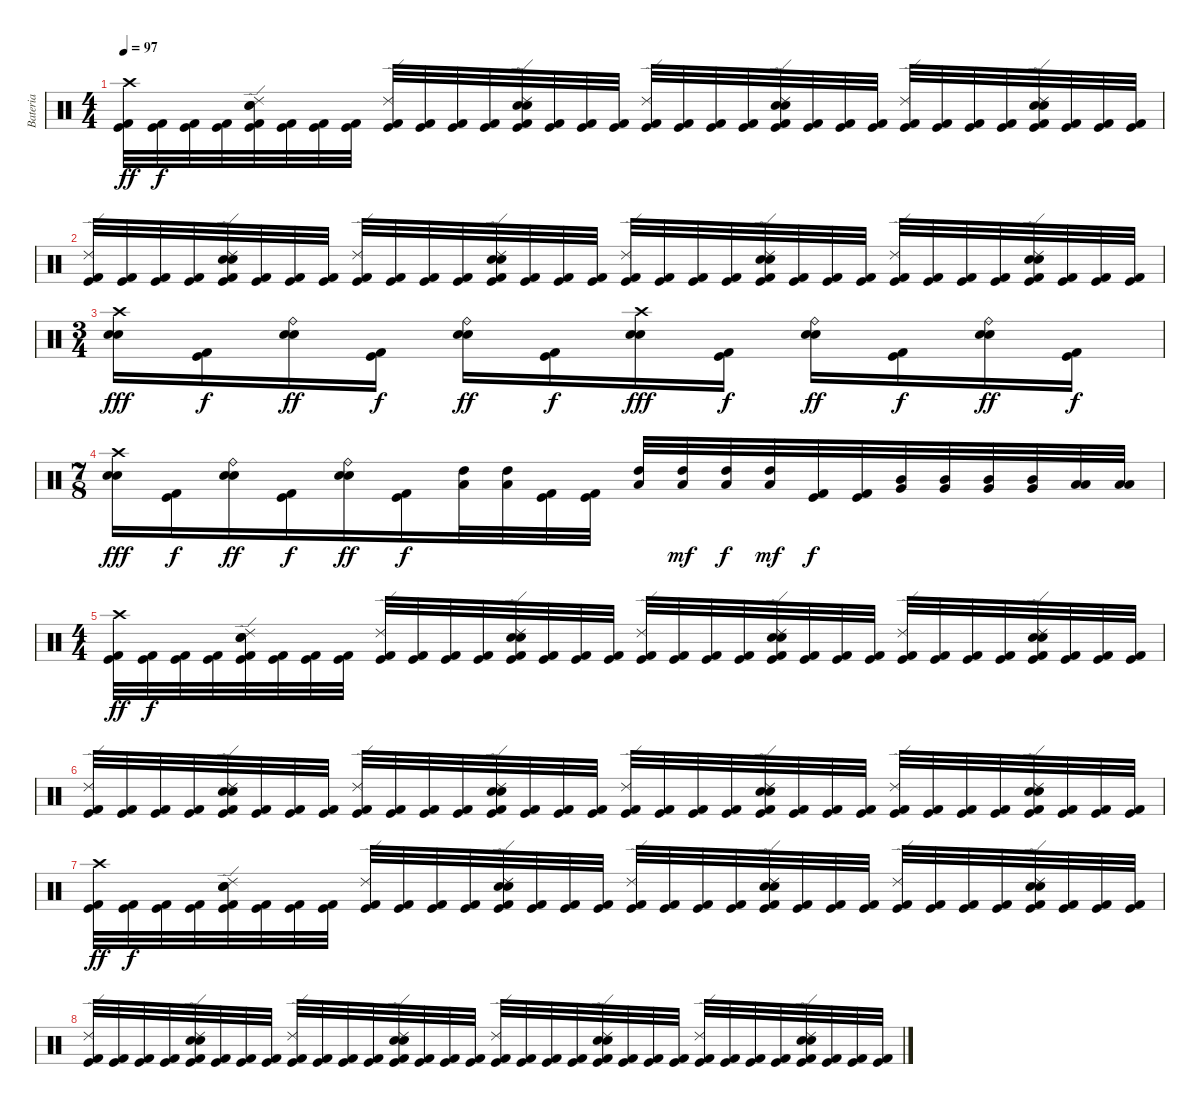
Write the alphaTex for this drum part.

\track ("Bateria" "Bateria") {instrument percussion}
\staff {score}
\articulation defaults
\ts (4 4)
\tempo 97
\clef neutral
\ks c
("Crash high (hit)" "Kick (hit) 2" "Kick (hit)").32{dy ff} ("Kick (hit) 2" "Kick (hit)").32{dy f} ("Kick (hit) 2" "Kick (hit)").32 ("Kick (hit) 2" "Kick (hit)").32 ("Ride (edge) 2" "Electric Snare (hit)" "Snare (hit) 2" "Kick (hit) 2" "Kick (hit)").32 ("Kick (hit) 2" "Kick (hit)").32 ("Kick (hit) 2" "Kick (hit)").32 ("Kick (hit) 2" "Kick (hit)").32 ("Ride (edge) 2" "Kick (hit) 2" "Kick (hit)").32 ("Kick (hit) 2" "Kick (hit)").32 ("Kick (hit) 2" "Kick (hit)").32 ("Kick (hit) 2" "Kick (hit)").32 ("Ride (edge) 2" "Electric Snare (hit)" "Snare (hit) 2" "Kick (hit) 2" "Kick (hit)").32 ("Kick (hit) 2" "Kick (hit)").32 ("Kick (hit) 2" "Kick (hit)").32 ("Kick (hit) 2" "Kick (hit)").32 ("Ride (edge) 2" "Kick (hit) 2" "Kick (hit)").32 ("Kick (hit) 2" "Kick (hit)").32 ("Kick (hit) 2" "Kick (hit)").32 ("Kick (hit) 2" "Kick (hit)").32 ("Ride (edge) 2" "Electric Snare (hit)" "Snare (hit) 2" "Kick (hit) 2" "Kick (hit)").32 ("Kick (hit) 2" "Kick (hit)").32 ("Kick (hit) 2" "Kick (hit)").32 ("Kick (hit) 2" "Kick (hit)").32 ("Ride (edge) 2" "Kick (hit) 2" "Kick (hit)").32 ("Kick (hit) 2" "Kick (hit)").32 ("Kick (hit) 2" "Kick (hit)").32 ("Kick (hit) 2" "Kick (hit)").32 ("Ride (edge) 2" "Electric Snare (hit)" "Snare (hit) 2" "Kick (hit) 2" "Kick (hit)").32 ("Kick (hit) 2" "Kick (hit)").32 ("Kick (hit) 2" "Kick (hit)").32 ("Kick (hit) 2" "Kick (hit)").32 |
("Ride (edge) 2" "Kick (hit) 2" "Kick (hit)").32 ("Kick (hit) 2" "Kick (hit)").32 ("Kick (hit) 2" "Kick (hit)").32 ("Kick (hit) 2" "Kick (hit)").32 ("Ride (edge) 2" "Electric Snare (hit)" "Snare (hit) 2" "Kick (hit) 2" "Kick (hit)").32 ("Kick (hit) 2" "Kick (hit)").32 ("Kick (hit) 2" "Kick (hit)").32 ("Kick (hit) 2" "Kick (hit)").32 ("Ride (edge) 2" "Kick (hit) 2" "Kick (hit)").32 ("Kick (hit) 2" "Kick (hit)").32 ("Kick (hit) 2" "Kick (hit)").32 ("Kick (hit) 2" "Kick (hit)").32 ("Ride (edge) 2" "Electric Snare (hit)" "Snare (hit) 2" "Kick (hit) 2" "Kick (hit)").32 ("Kick (hit) 2" "Kick (hit)").32 ("Kick (hit) 2" "Kick (hit)").32 ("Kick (hit) 2" "Kick (hit)").32 ("Ride (edge) 2" "Kick (hit) 2" "Kick (hit)").32 ("Kick (hit) 2" "Kick (hit)").32 ("Kick (hit) 2" "Kick (hit)").32 ("Kick (hit) 2" "Kick (hit)").32 ("Ride (edge) 2" "Electric Snare (hit)" "Snare (hit) 2" "Kick (hit) 2" "Kick (hit)").32 ("Kick (hit) 2" "Kick (hit)").32 ("Kick (hit) 2" "Kick (hit)").32 ("Kick (hit) 2" "Kick (hit)").32 ("Ride (edge) 2" "Kick (hit) 2" "Kick (hit)").32 ("Kick (hit) 2" "Kick (hit)").32 ("Kick (hit) 2" "Kick (hit)").32 ("Kick (hit) 2" "Kick (hit)").32 ("Ride (edge) 2" "Electric Snare (hit)" "Snare (hit) 2" "Kick (hit) 2" "Kick (hit)").32 ("Kick (hit) 2" "Kick (hit)").32 ("Kick (hit) 2" "Kick (hit)").32 ("Kick (hit) 2" "Kick (hit)").32 |
\ts (3 4)
("Crash high (hit)" "Electric Snare (hit)" "Snare (hit) 2").16{dy fff} ("Kick (hit) 2" "Kick (hit)").16{dy f} ("Ride (bell)" "Electric Snare (hit)" "Snare (hit) 2").16{dy ff} ("Kick (hit) 2" "Kick (hit)").16{dy f} ("Ride (bell)" "Electric Snare (hit)" "Snare (hit) 2").16{dy ff} ("Kick (hit) 2" "Kick (hit)").16{dy f} ("Crash high (hit)" "Electric Snare (hit)" "Snare (hit) 2").16{dy fff} ("Kick (hit) 2" "Kick (hit)").16{dy f} ("Ride (bell)" "Electric Snare (hit)" "Snare (hit) 2").16{dy ff} ("Kick (hit) 2" "Kick (hit)").16{dy f} ("Ride (bell)" "Electric Snare (hit)" "Snare (hit) 2").16{dy ff} ("Kick (hit) 2" "Kick (hit)").16{dy f} |
\ts (7 8)
("Crash high (hit)" "Electric Snare (hit)" "Snare (hit) 2").16{dy fff} ("Kick (hit) 2" "Kick (hit)").16{dy f} ("Ride (bell)" "Electric Snare (hit)" "Snare (hit) 2").16{dy ff} ("Kick (hit) 2" "Kick (hit)").16{dy f} ("Ride (bell)" "Electric Snare (hit)" "Snare (hit) 2").16{dy ff} ("Kick (hit) 2" "Kick (hit)").16{dy f} ("High Tom (hit)" "Low Tom (hit)").32 ("High Tom (hit)" "Low Tom (hit)").32 ("Kick (hit) 2" "Kick (hit)").32 ("Kick (hit) 2" "Kick (hit)").32 ("High Tom (hit)" "Low Tom (hit)").32 ("High Tom (hit)" "Low Tom (hit)").32{dy mf} ("High Tom (hit)" "Low Tom (hit)").32{dy f} ("High Tom (hit)" "Low Tom (hit)").32{dy mf} ("Kick (hit) 2" "Kick (hit)").32{dy f} ("Kick (hit) 2" "Kick (hit)").32 ("Mid Tom (hit)" "Very Low Tom (hit)").32 ("Mid Tom (hit)" "Very Low Tom (hit)").32 ("Mid Tom (hit)" "Very Low Tom (hit)").32 ("Mid Tom (hit)" "Very Low Tom (hit)").32 ("Low Tom (hit)" "Low Floor Tom (hit)").32 ("Low Tom (hit)" "Low Floor Tom (hit)").32 |
\ts (4 4)
("Crash high (hit)" "Kick (hit) 2" "Kick (hit)").32{dy ff} ("Kick (hit) 2" "Kick (hit)").32{dy f} ("Kick (hit) 2" "Kick (hit)").32 ("Kick (hit) 2" "Kick (hit)").32 ("Ride (edge) 2" "Electric Snare (hit)" "Snare (hit) 2" "Kick (hit) 2" "Kick (hit)").32 ("Kick (hit) 2" "Kick (hit)").32 ("Kick (hit) 2" "Kick (hit)").32 ("Kick (hit) 2" "Kick (hit)").32 ("Ride (edge) 2" "Kick (hit) 2" "Kick (hit)").32 ("Kick (hit) 2" "Kick (hit)").32 ("Kick (hit) 2" "Kick (hit)").32 ("Kick (hit) 2" "Kick (hit)").32 ("Ride (edge) 2" "Electric Snare (hit)" "Snare (hit) 2" "Kick (hit) 2" "Kick (hit)").32 ("Kick (hit) 2" "Kick (hit)").32 ("Kick (hit) 2" "Kick (hit)").32 ("Kick (hit) 2" "Kick (hit)").32 ("Ride (edge) 2" "Kick (hit) 2" "Kick (hit)").32 ("Kick (hit) 2" "Kick (hit)").32 ("Kick (hit) 2" "Kick (hit)").32 ("Kick (hit) 2" "Kick (hit)").32 ("Ride (edge) 2" "Electric Snare (hit)" "Snare (hit) 2" "Kick (hit) 2" "Kick (hit)").32 ("Kick (hit) 2" "Kick (hit)").32 ("Kick (hit) 2" "Kick (hit)").32 ("Kick (hit) 2" "Kick (hit)").32 ("Ride (edge) 2" "Kick (hit) 2" "Kick (hit)").32 ("Kick (hit) 2" "Kick (hit)").32 ("Kick (hit) 2" "Kick (hit)").32 ("Kick (hit) 2" "Kick (hit)").32 ("Ride (edge) 2" "Electric Snare (hit)" "Snare (hit) 2" "Kick (hit) 2" "Kick (hit)").32 ("Kick (hit) 2" "Kick (hit)").32 ("Kick (hit) 2" "Kick (hit)").32 ("Kick (hit) 2" "Kick (hit)").32 |
("Ride (edge) 2" "Kick (hit) 2" "Kick (hit)").32 ("Kick (hit) 2" "Kick (hit)").32 ("Kick (hit) 2" "Kick (hit)").32 ("Kick (hit) 2" "Kick (hit)").32 ("Ride (edge) 2" "Electric Snare (hit)" "Snare (hit) 2" "Kick (hit) 2" "Kick (hit)").32 ("Kick (hit) 2" "Kick (hit)").32 ("Kick (hit) 2" "Kick (hit)").32 ("Kick (hit) 2" "Kick (hit)").32 ("Ride (edge) 2" "Kick (hit) 2" "Kick (hit)").32 ("Kick (hit) 2" "Kick (hit)").32 ("Kick (hit) 2" "Kick (hit)").32 ("Kick (hit) 2" "Kick (hit)").32 ("Ride (edge) 2" "Electric Snare (hit)" "Snare (hit) 2" "Kick (hit) 2" "Kick (hit)").32 ("Kick (hit) 2" "Kick (hit)").32 ("Kick (hit) 2" "Kick (hit)").32 ("Kick (hit) 2" "Kick (hit)").32 ("Ride (edge) 2" "Kick (hit) 2" "Kick (hit)").32 ("Kick (hit) 2" "Kick (hit)").32 ("Kick (hit) 2" "Kick (hit)").32 ("Kick (hit) 2" "Kick (hit)").32 ("Ride (edge) 2" "Electric Snare (hit)" "Snare (hit) 2" "Kick (hit) 2" "Kick (hit)").32 ("Kick (hit) 2" "Kick (hit)").32 ("Kick (hit) 2" "Kick (hit)").32 ("Kick (hit) 2" "Kick (hit)").32 ("Ride (edge) 2" "Kick (hit) 2" "Kick (hit)").32 ("Kick (hit) 2" "Kick (hit)").32 ("Kick (hit) 2" "Kick (hit)").32 ("Kick (hit) 2" "Kick (hit)").32 ("Ride (edge) 2" "Electric Snare (hit)" "Snare (hit) 2" "Kick (hit) 2" "Kick (hit)").32 ("Kick (hit) 2" "Kick (hit)").32 ("Kick (hit) 2" "Kick (hit)").32 ("Kick (hit) 2" "Kick (hit)").32 |
("Crash high (hit)" "Kick (hit) 2" "Kick (hit)").32{dy ff} ("Kick (hit) 2" "Kick (hit)").32{dy f} ("Kick (hit) 2" "Kick (hit)").32 ("Kick (hit) 2" "Kick (hit)").32 ("Ride (edge) 2" "Electric Snare (hit)" "Snare (hit) 2" "Kick (hit) 2" "Kick (hit)").32 ("Kick (hit) 2" "Kick (hit)").32 ("Kick (hit) 2" "Kick (hit)").32 ("Kick (hit) 2" "Kick (hit)").32 ("Ride (edge) 2" "Kick (hit) 2" "Kick (hit)").32 ("Kick (hit) 2" "Kick (hit)").32 ("Kick (hit) 2" "Kick (hit)").32 ("Kick (hit) 2" "Kick (hit)").32 ("Ride (edge) 2" "Electric Snare (hit)" "Snare (hit) 2" "Kick (hit) 2" "Kick (hit)").32 ("Kick (hit) 2" "Kick (hit)").32 ("Kick (hit) 2" "Kick (hit)").32 ("Kick (hit) 2" "Kick (hit)").32 ("Ride (edge) 2" "Kick (hit) 2" "Kick (hit)").32 ("Kick (hit) 2" "Kick (hit)").32 ("Kick (hit) 2" "Kick (hit)").32 ("Kick (hit) 2" "Kick (hit)").32 ("Ride (edge) 2" "Electric Snare (hit)" "Snare (hit) 2" "Kick (hit) 2" "Kick (hit)").32 ("Kick (hit) 2" "Kick (hit)").32 ("Kick (hit) 2" "Kick (hit)").32 ("Kick (hit) 2" "Kick (hit)").32 ("Ride (edge) 2" "Kick (hit) 2" "Kick (hit)").32 ("Kick (hit) 2" "Kick (hit)").32 ("Kick (hit) 2" "Kick (hit)").32 ("Kick (hit) 2" "Kick (hit)").32 ("Ride (edge) 2" "Electric Snare (hit)" "Snare (hit) 2" "Kick (hit) 2" "Kick (hit)").32 ("Kick (hit) 2" "Kick (hit)").32 ("Kick (hit) 2" "Kick (hit)").32 ("Kick (hit) 2" "Kick (hit)").32 |
("Ride (edge) 2" "Kick (hit) 2" "Kick (hit)").32 ("Kick (hit) 2" "Kick (hit)").32 ("Kick (hit) 2" "Kick (hit)").32 ("Kick (hit) 2" "Kick (hit)").32 ("Ride (edge) 2" "Electric Snare (hit)" "Snare (hit) 2" "Kick (hit) 2" "Kick (hit)").32 ("Kick (hit) 2" "Kick (hit)").32 ("Kick (hit) 2" "Kick (hit)").32 ("Kick (hit) 2" "Kick (hit)").32 ("Ride (edge) 2" "Kick (hit) 2" "Kick (hit)").32 ("Kick (hit) 2" "Kick (hit)").32 ("Kick (hit) 2" "Kick (hit)").32 ("Kick (hit) 2" "Kick (hit)").32 ("Ride (edge) 2" "Electric Snare (hit)" "Snare (hit) 2" "Kick (hit) 2" "Kick (hit)").32 ("Kick (hit) 2" "Kick (hit)").32 ("Kick (hit) 2" "Kick (hit)").32 ("Kick (hit) 2" "Kick (hit)").32 ("Ride (edge) 2" "Kick (hit) 2" "Kick (hit)").32 ("Kick (hit) 2" "Kick (hit)").32 ("Kick (hit) 2" "Kick (hit)").32 ("Kick (hit) 2" "Kick (hit)").32 ("Ride (edge) 2" "Electric Snare (hit)" "Snare (hit) 2" "Kick (hit) 2" "Kick (hit)").32 ("Kick (hit) 2" "Kick (hit)").32 ("Kick (hit) 2" "Kick (hit)").32 ("Kick (hit) 2" "Kick (hit)").32 ("Ride (edge) 2" "Kick (hit) 2" "Kick (hit)").32 ("Kick (hit) 2" "Kick (hit)").32 ("Kick (hit) 2" "Kick (hit)").32 ("Kick (hit) 2" "Kick (hit)").32 ("Ride (edge) 2" "Electric Snare (hit)" "Snare (hit) 2" "Kick (hit) 2" "Kick (hit)").32 ("Kick (hit) 2" "Kick (hit)").32 ("Kick (hit) 2" "Kick (hit)").32 ("Kick (hit) 2" "Kick (hit)").32
